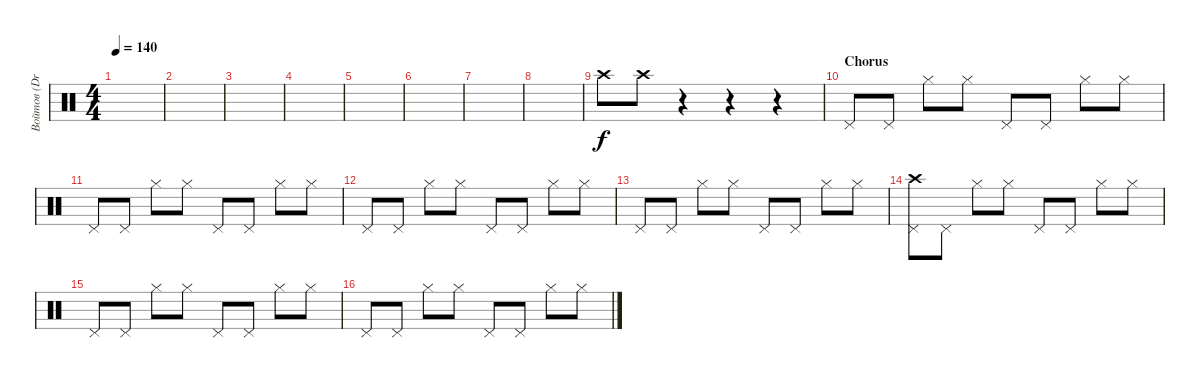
\track ("Войтов (Drums)" "Войтов (Dr") {instrument percussion}
\staff {score}
\articulation defaults
\ts (4 4)
\tempo 140
\clef neutral
\ks c
|
|
|
|
|
|
|
|
"Crash high (hit)".8 "Crash high (hit)".8 r.4 r.4 r.4 |
\section ("" "Chorus")
"Pedal Hi-Hat (hit)".8 "Pedal Hi-Hat (hit)".8 "Hi-Hat (closed)".8 "Hi-Hat (closed)".8 "Pedal Hi-Hat (hit)".8 "Pedal Hi-Hat (hit)".8 "Hi-Hat (closed)".8 "Hi-Hat (closed)".8 |
"Pedal Hi-Hat (hit)".8 "Pedal Hi-Hat (hit)".8 "Hi-Hat (closed)".8 "Hi-Hat (closed)".8 "Pedal Hi-Hat (hit)".8 "Pedal Hi-Hat (hit)".8 "Hi-Hat (closed)".8 "Hi-Hat (closed)".8 |
"Pedal Hi-Hat (hit)".8 "Pedal Hi-Hat (hit)".8 "Hi-Hat (closed)".8 "Hi-Hat (closed)".8 "Pedal Hi-Hat (hit)".8 "Pedal Hi-Hat (hit)".8 "Hi-Hat (closed)".8 "Hi-Hat (closed)".8 |
"Pedal Hi-Hat (hit)".8 "Pedal Hi-Hat (hit)".8 "Hi-Hat (closed)".8 "Hi-Hat (closed)".8 "Pedal Hi-Hat (hit)".8 "Pedal Hi-Hat (hit)".8 "Hi-Hat (closed)".8 "Hi-Hat (closed)".8 |
("Pedal Hi-Hat (hit)" "Crash high (hit)").8 "Pedal Hi-Hat (hit)".8 "Hi-Hat (closed)".8 "Hi-Hat (closed)".8 "Pedal Hi-Hat (hit)".8 "Pedal Hi-Hat (hit)".8 "Hi-Hat (closed)".8 "Hi-Hat (closed)".8 |
"Pedal Hi-Hat (hit)".8 "Pedal Hi-Hat (hit)".8 "Hi-Hat (closed)".8 "Hi-Hat (closed)".8 "Pedal Hi-Hat (hit)".8 "Pedal Hi-Hat (hit)".8 "Hi-Hat (closed)".8 "Hi-Hat (closed)".8 |
"Pedal Hi-Hat (hit)".8 "Pedal Hi-Hat (hit)".8 "Hi-Hat (closed)".8 "Hi-Hat (closed)".8 "Pedal Hi-Hat (hit)".8 "Pedal Hi-Hat (hit)".8 "Hi-Hat (closed)".8 "Hi-Hat (closed)".8
